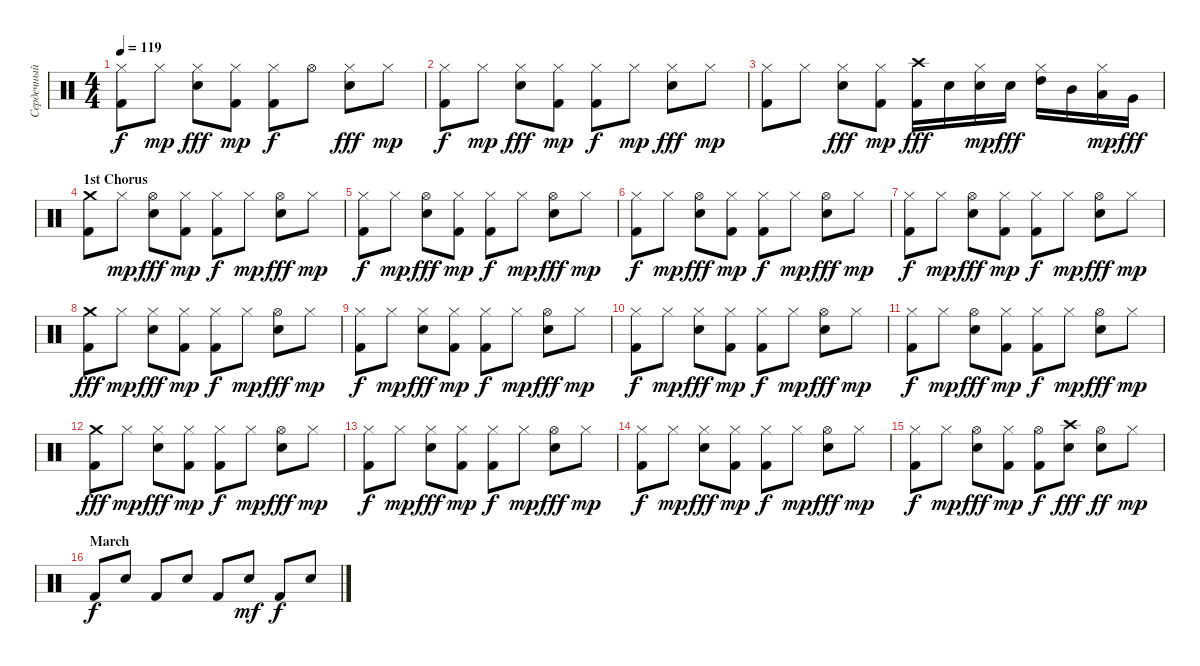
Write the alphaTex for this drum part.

\track ("Сердечный (Ударные)" "Сердечный ") {instrument percussion}
\staff {score}
\articulation defaults
\ts (4 4)
\tempo 119
\clef neutral
\ks c
("Kick (hit) 2" "Hi-Hat (closed)").8{dy f} "Hi-Hat (closed)".8{dy mp} ("Hi-Hat (closed)" "Electric Snare (hit)").8{dy fff} ("Hi-Hat (closed)" "Kick (hit) 2").8{dy mp} ("Hi-Hat (closed)" "Kick (hit) 2").8{dy f} "Hi-Hat (open)".8 ("Hi-Hat (closed)" "Electric Snare (hit)").8{dy fff} "Hi-Hat (closed)".8{dy mp} |
("Kick (hit) 2" "Hi-Hat (closed)").8{dy f} "Hi-Hat (closed)".8{dy mp} ("Hi-Hat (closed)" "Electric Snare (hit)").8{dy fff} ("Hi-Hat (closed)" "Kick (hit) 2").8{dy mp} ("Hi-Hat (closed)" "Kick (hit) 2").8{dy f} "Hi-Hat (closed)".8{dy mp} ("Hi-Hat (closed)" "Electric Snare (hit)").8{dy fff} "Hi-Hat (closed)".8{dy mp} |
("Kick (hit) 2" "Hi-Hat (closed)").8 "Hi-Hat (closed)".8 ("Hi-Hat (closed)" "Electric Snare (hit)").8{dy fff} ("Hi-Hat (closed)" "Kick (hit) 2").8{dy mp} ("Crash high (hit)" "Kick (hit) 2").16{dy fff} "Electric Snare (hit)".16 ("Electric Snare (hit)" "Hi-Hat (closed)").16{dy mp} "Electric Snare (hit)".16{dy fff} ("Hi-Hat (closed)" "High Tom (hit)").16 "Mid Tom (hit)".16 ("Low Tom (hit)" "Hi-Hat (closed)").16{dy mp} "Very Low Tom (hit)".16{dy fff} |
\section ("" "1st Chorus")
("Kick (hit) 2" "Crash medium (hit)").8 "Hi-Hat (closed)".8{dy mp} ("Hi-Hat (open)" "Electric Snare (hit)").8{dy fff} ("Hi-Hat (closed)" "Kick (hit) 2").8{dy mp} ("Hi-Hat (closed)" "Kick (hit) 2").8{dy f} "Hi-Hat (closed)".8{dy mp} ("Hi-Hat (open)" "Electric Snare (hit)").8{dy fff} "Hi-Hat (closed)".8{dy mp} |
("Kick (hit) 2" "Hi-Hat (closed)").8{dy f} "Hi-Hat (closed)".8{dy mp} ("Hi-Hat (open)" "Electric Snare (hit)").8{dy fff} ("Hi-Hat (closed)" "Kick (hit) 2").8{dy mp} ("Hi-Hat (closed)" "Kick (hit) 2").8{dy f} "Hi-Hat (closed)".8{dy mp} ("Hi-Hat (open)" "Electric Snare (hit)").8{dy fff} "Hi-Hat (closed)".8{dy mp} |
("Kick (hit) 2" "Hi-Hat (closed)").8{dy f} "Hi-Hat (closed)".8{dy mp} ("Hi-Hat (open)" "Electric Snare (hit)").8{dy fff} ("Hi-Hat (closed)" "Kick (hit) 2").8{dy mp} ("Hi-Hat (closed)" "Kick (hit) 2").8{dy f} "Hi-Hat (closed)".8{dy mp} ("Hi-Hat (open)" "Electric Snare (hit)").8{dy fff} "Hi-Hat (closed)".8{dy mp} |
("Kick (hit) 2" "Hi-Hat (closed)").8{dy f} "Hi-Hat (closed)".8{dy mp} ("Hi-Hat (open)" "Electric Snare (hit)").8{dy fff} ("Hi-Hat (closed)" "Kick (hit) 2").8{dy mp} ("Hi-Hat (closed)" "Kick (hit) 2").8{dy f} "Hi-Hat (closed)".8{dy mp} ("Hi-Hat (open)" "Electric Snare (hit)").8{dy fff} "Hi-Hat (closed)".8{dy mp} |
("Kick (hit) 2" "Crash medium (hit)").8{dy fff} "Hi-Hat (closed)".8{dy mp} ("Hi-Hat (closed)" "Electric Snare (hit)").8{dy fff} ("Hi-Hat (closed)" "Kick (hit) 2").8{dy mp} ("Hi-Hat (closed)" "Kick (hit) 2").8{dy f} "Hi-Hat (closed)".8{dy mp} ("Hi-Hat (open)" "Electric Snare (hit)").8{dy fff} "Hi-Hat (closed)".8{dy mp} |
("Kick (hit) 2" "Hi-Hat (closed)").8{dy f} "Hi-Hat (closed)".8{dy mp} ("Hi-Hat (closed)" "Electric Snare (hit)").8{dy fff} ("Hi-Hat (closed)" "Kick (hit) 2").8{dy mp} ("Hi-Hat (closed)" "Kick (hit) 2").8{dy f} "Hi-Hat (closed)".8{dy mp} ("Hi-Hat (open)" "Electric Snare (hit)").8{dy fff} "Hi-Hat (closed)".8{dy mp} |
("Kick (hit) 2" "Hi-Hat (closed)").8{dy f} "Hi-Hat (closed)".8{dy mp} ("Hi-Hat (closed)" "Electric Snare (hit)").8{dy fff} ("Hi-Hat (closed)" "Kick (hit) 2").8{dy mp} ("Hi-Hat (closed)" "Kick (hit) 2").8{dy f} "Hi-Hat (closed)".8{dy mp} ("Hi-Hat (open)" "Electric Snare (hit)").8{dy fff} "Hi-Hat (closed)".8{dy mp} |
("Kick (hit) 2" "Hi-Hat (closed)").8{dy f} "Hi-Hat (closed)".8{dy mp} ("Hi-Hat (open)" "Electric Snare (hit)").8{dy fff} ("Hi-Hat (closed)" "Kick (hit) 2").8{dy mp} ("Hi-Hat (closed)" "Kick (hit) 2").8{dy f} "Hi-Hat (closed)".8{dy mp} ("Hi-Hat (open)" "Electric Snare (hit)").8{dy fff} "Hi-Hat (closed)".8{dy mp} |
("Kick (hit) 2" "Crash medium (hit)").8{dy fff} "Hi-Hat (closed)".8{dy mp} ("Hi-Hat (closed)" "Electric Snare (hit)").8{dy fff} ("Hi-Hat (closed)" "Kick (hit) 2").8{dy mp} ("Hi-Hat (closed)" "Kick (hit) 2").8{dy f} "Hi-Hat (closed)".8{dy mp} ("Hi-Hat (open)" "Electric Snare (hit)").8{dy fff} "Hi-Hat (closed)".8{dy mp} |
("Kick (hit) 2" "Hi-Hat (closed)").8{dy f} "Hi-Hat (closed)".8{dy mp} ("Hi-Hat (closed)" "Electric Snare (hit)").8{dy fff} ("Hi-Hat (closed)" "Kick (hit) 2").8{dy mp} ("Hi-Hat (closed)" "Kick (hit) 2").8{dy f} "Hi-Hat (closed)".8{dy mp} ("Hi-Hat (open)" "Electric Snare (hit)").8{dy fff} "Hi-Hat (closed)".8{dy mp} |
("Kick (hit) 2" "Hi-Hat (closed)").8{dy f} "Hi-Hat (closed)".8{dy mp} ("Hi-Hat (closed)" "Electric Snare (hit)").8{dy fff} ("Hi-Hat (closed)" "Kick (hit) 2").8{dy mp} ("Hi-Hat (closed)" "Kick (hit) 2").8{dy f} "Hi-Hat (closed)".8{dy mp} ("Hi-Hat (open)" "Electric Snare (hit)").8{dy fff} "Hi-Hat (closed)".8{dy mp} |
("Hi-Hat (closed)" "Kick (hit) 2").8{dy f} "Hi-Hat (closed)".8{dy mp} ("Hi-Hat (open)" "Electric Snare (hit)").8{dy fff} ("Hi-Hat (closed)" "Kick (hit) 2").8{dy mp} ("Hi-Hat (open)" "Kick (hit) 2").8{dy f} ("Electric Snare (hit)" "Crash high (hit)").8{dy fff} ("Hi-Hat (open)" "Electric Snare (hit)").8{dy ff} "Hi-Hat (closed)".8{dy mp} |
\section ("" "March")
"Kick (hit) 2".8{dy f} "Electric Snare (hit)".8 "Kick (hit) 2".8 "Electric Snare (hit)".8 "Kick (hit) 2".8 "Electric Snare (hit)"{tr (40 32)}.8{dy mf} "Kick (hit) 2".8{dy f} "Electric Snare (hit)".8
